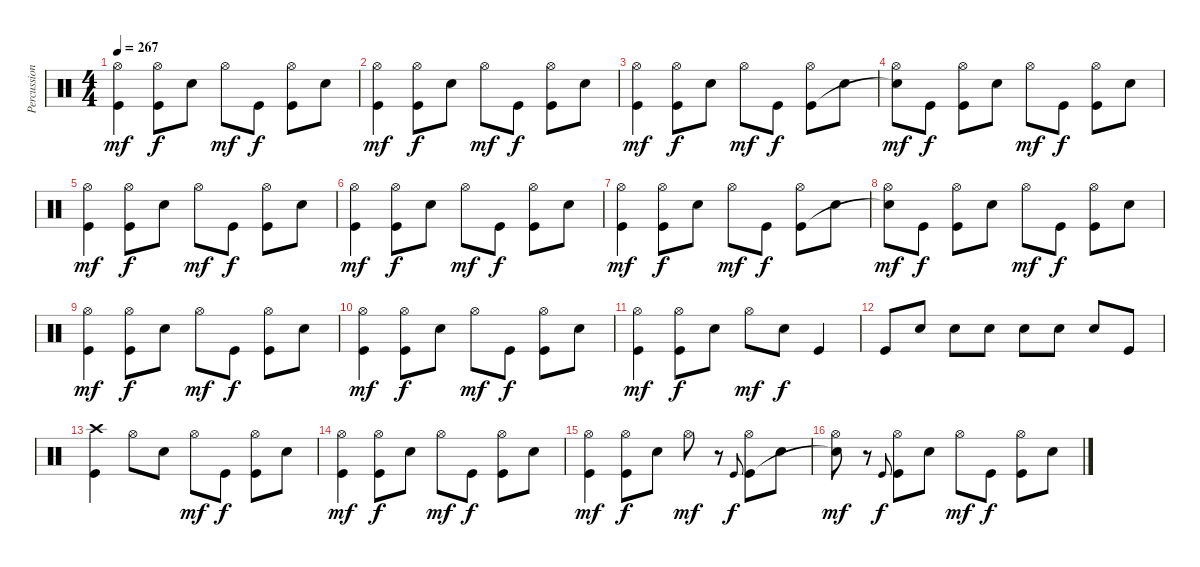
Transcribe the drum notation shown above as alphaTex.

\track ("Percussion" "Percussion") {instrument percussion}
\staff {score}
\articulation defaults
\ts (4 4)
\tempo 267
\clef neutral
\ks c
("Hi-Hat (open)" "Kick (hit)").4{dy mf} ("Hi-Hat (open)" "Kick (hit)").8{dy f} "Electric Snare (hit)".8 "Hi-Hat (open)".8{dy mf} "Kick (hit)".8{dy f} ("Hi-Hat (open)" "Kick (hit)").8 "Electric Snare (hit)".8 |
("Hi-Hat (open)" "Kick (hit)").4{dy mf} ("Hi-Hat (open)" "Kick (hit)").8{dy f} "Electric Snare (hit)".8 "Hi-Hat (open)".8{dy mf} "Kick (hit)".8{dy f} ("Hi-Hat (open)" "Kick (hit)").8 "Electric Snare (hit)".8 |
("Hi-Hat (open)" "Kick (hit)").4{dy mf} ("Hi-Hat (open)" "Kick (hit)").8{dy f} "Electric Snare (hit)".8 "Hi-Hat (open)".8{dy mf} "Kick (hit)".8{dy f} ("Hi-Hat (open)" "Kick (hit)").8 "Electric Snare (hit)".8 |
("Hi-Hat (open)" "Snare (hit)"{t}).8{dy mf} "Kick (hit)".8{dy f} ("Hi-Hat (open)" "Kick (hit)").8 "Electric Snare (hit)".8 "Hi-Hat (open)".8{dy mf} "Kick (hit)".8{dy f} ("Hi-Hat (open)" "Kick (hit)").8 "Electric Snare (hit)".8 |
("Hi-Hat (open)" "Kick (hit)").4{dy mf} ("Hi-Hat (open)" "Kick (hit)").8{dy f} "Electric Snare (hit)".8 "Hi-Hat (open)".8{dy mf} "Kick (hit)".8{dy f} ("Hi-Hat (open)" "Kick (hit)").8 "Electric Snare (hit)".8 |
("Hi-Hat (open)" "Kick (hit)").4{dy mf} ("Hi-Hat (open)" "Kick (hit)").8{dy f} "Electric Snare (hit)".8 "Hi-Hat (open)".8{dy mf} "Kick (hit)".8{dy f} ("Hi-Hat (open)" "Kick (hit)").8 "Electric Snare (hit)".8 |
("Hi-Hat (open)" "Kick (hit)").4{dy mf} ("Hi-Hat (open)" "Kick (hit)").8{dy f} "Electric Snare (hit)".8 "Hi-Hat (open)".8{dy mf} "Kick (hit)".8{dy f} ("Hi-Hat (open)" "Kick (hit)").8 "Electric Snare (hit)".8 |
("Hi-Hat (open)" "Snare (hit)"{t}).8{dy mf} "Kick (hit)".8{dy f} ("Hi-Hat (open)" "Kick (hit)").8 "Electric Snare (hit)".8 "Hi-Hat (open)".8{dy mf} "Kick (hit)".8{dy f} ("Hi-Hat (open)" "Kick (hit)").8 "Electric Snare (hit)".8 |
("Hi-Hat (open)" "Kick (hit)").4{dy mf} ("Hi-Hat (open)" "Kick (hit)").8{dy f} "Electric Snare (hit)".8 "Hi-Hat (open)".8{dy mf} "Kick (hit)".8{dy f} ("Hi-Hat (open)" "Kick (hit)").8 "Electric Snare (hit)".8 |
("Hi-Hat (open)" "Kick (hit)").4{dy mf} ("Hi-Hat (open)" "Kick (hit)").8{dy f} "Electric Snare (hit)".8 "Hi-Hat (open)".8{dy mf} "Kick (hit)".8{dy f} ("Hi-Hat (open)" "Kick (hit)").8 "Electric Snare (hit)".8 |
("Hi-Hat (open)" "Kick (hit)").4{dy mf} ("Hi-Hat (open)" "Kick (hit)").8{dy f} "Electric Snare (hit)".8 "Hi-Hat (open)".8{dy mf} "Electric Snare (hit)".8{dy f} "Kick (hit)".4 |
"Kick (hit)".8 "Electric Snare (hit)".8 "Electric Snare (hit)".8 "Electric Snare (hit)".8 "Electric Snare (hit)".8 "Electric Snare (hit)".8 "Electric Snare (hit)".8 "Kick (hit)".8 |
("Crash high (hit)" "Kick (hit)").4 "Hi-Hat (open)".8 "Electric Snare (hit)".8 "Hi-Hat (open)".8{dy mf} "Kick (hit)".8{dy f} ("Hi-Hat (open)" "Kick (hit)").8 "Electric Snare (hit)".8 |
("Hi-Hat (open)" "Kick (hit)").4{dy mf} ("Hi-Hat (open)" "Kick (hit)").8{dy f} "Electric Snare (hit)".8 "Hi-Hat (open)".8{dy mf} "Kick (hit)".8{dy f} ("Hi-Hat (open)" "Kick (hit)").8 "Electric Snare (hit)".8 |
("Hi-Hat (open)" "Kick (hit)").4{dy mf} ("Hi-Hat (open)" "Kick (hit)").8{dy f} "Electric Snare (hit)".8 "Hi-Hat (open)".8{dy mf} r.8 "Kick (hit)".8{gr onbeat dy f} ("Hi-Hat (open)" "Kick (hit)").8 "Electric Snare (hit)".8 |
("Hi-Hat (open)" "Snare (hit)"{t}).8{dy mf} r.8 "Kick (hit)".8{gr onbeat dy f} ("Hi-Hat (open)" "Kick (hit)").8 "Electric Snare (hit)".8 "Hi-Hat (open)".8{dy mf} "Kick (hit)".8{dy f} ("Hi-Hat (open)" "Kick (hit)").8 "Electric Snare (hit)".8
